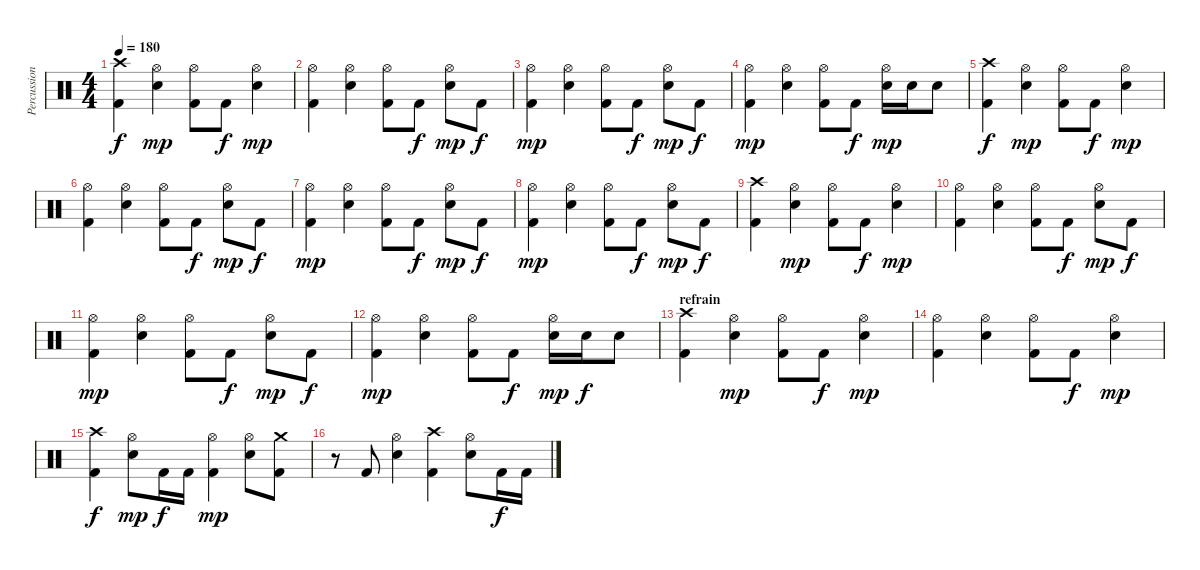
\track ("Percussions" "Percussion") {instrument percussion}
\staff {score}
\articulation defaults
\ts (4 4)
\tempo 180
\clef neutral
\ks c
("Crash high (hit)" "Kick (hit) 2").4{dy f} ("Hi-Hat (open)" "Electric Snare (hit)").4{dy mp} ("Hi-Hat (open)" "Kick (hit) 2").8 "Kick (hit) 2".8{dy f} ("Hi-Hat (open)" "Electric Snare (hit)").4{dy mp} |
("Hi-Hat (open)" "Kick (hit) 2").4 ("Hi-Hat (open)" "Electric Snare (hit)").4 ("Hi-Hat (open)" "Kick (hit) 2").8 "Kick (hit) 2".8{dy f} ("Hi-Hat (open)" "Electric Snare (hit)").8{dy mp} "Kick (hit) 2".8{dy f} |
("Hi-Hat (open)" "Kick (hit) 2").4{dy mp} ("Hi-Hat (open)" "Electric Snare (hit)").4 ("Hi-Hat (open)" "Kick (hit) 2").8 "Kick (hit) 2".8{dy f} ("Hi-Hat (open)" "Electric Snare (hit)").8{dy mp} "Kick (hit) 2".8{dy f} |
("Hi-Hat (open)" "Kick (hit) 2").4{dy mp} ("Hi-Hat (open)" "Electric Snare (hit)").4 ("Hi-Hat (open)" "Kick (hit) 2").8 "Kick (hit) 2".8{dy f} ("Hi-Hat (open)" "Electric Snare (hit)").16{dy mp} "Electric Snare (hit)".16 "Electric Snare (hit)".8 |
("Crash high (hit)" "Kick (hit) 2").4{dy f} ("Hi-Hat (open)" "Electric Snare (hit)").4{dy mp} ("Hi-Hat (open)" "Kick (hit) 2").8 "Kick (hit) 2".8{dy f} ("Hi-Hat (open)" "Electric Snare (hit)").4{dy mp} |
("Hi-Hat (open)" "Kick (hit) 2").4 ("Hi-Hat (open)" "Electric Snare (hit)").4 ("Hi-Hat (open)" "Kick (hit) 2").8 "Kick (hit) 2".8{dy f} ("Hi-Hat (open)" "Electric Snare (hit)").8{dy mp} "Kick (hit) 2".8{dy f} |
("Hi-Hat (open)" "Kick (hit) 2").4{dy mp} ("Hi-Hat (open)" "Electric Snare (hit)").4 ("Hi-Hat (open)" "Kick (hit) 2").8 "Kick (hit) 2".8{dy f} ("Hi-Hat (open)" "Electric Snare (hit)").8{dy mp} "Kick (hit) 2".8{dy f} |
("Hi-Hat (open)" "Kick (hit) 2").4{dy mp} ("Hi-Hat (open)" "Electric Snare (hit)").4 ("Hi-Hat (open)" "Kick (hit) 2").8 "Kick (hit) 2".8{dy f} ("Hi-Hat (open)" "Electric Snare (hit)").8{dy mp} "Kick (hit) 2".8{dy f} |
("Crash high (hit)" "Kick (hit) 2").4 ("Hi-Hat (open)" "Electric Snare (hit)").4{dy mp} ("Hi-Hat (open)" "Kick (hit) 2").8 "Kick (hit) 2".8{dy f} ("Hi-Hat (open)" "Electric Snare (hit)").4{dy mp} |
("Hi-Hat (open)" "Kick (hit) 2").4 ("Hi-Hat (open)" "Electric Snare (hit)").4 ("Hi-Hat (open)" "Kick (hit) 2").8 "Kick (hit) 2".8{dy f} ("Hi-Hat (open)" "Electric Snare (hit)").8{dy mp} "Kick (hit) 2".8{dy f} |
("Hi-Hat (open)" "Kick (hit) 2").4{dy mp} ("Hi-Hat (open)" "Electric Snare (hit)").4 ("Hi-Hat (open)" "Kick (hit) 2").8 "Kick (hit) 2".8{dy f} ("Hi-Hat (open)" "Electric Snare (hit)").8{dy mp} "Kick (hit) 2".8{dy f} |
("Hi-Hat (open)" "Kick (hit) 2").4{dy mp} ("Hi-Hat (open)" "Electric Snare (hit)").4 ("Hi-Hat (open)" "Kick (hit) 2").8 "Kick (hit) 2".8{dy f} ("Hi-Hat (open)" "Electric Snare (hit)").16{dy mp} "Electric Snare (hit)".16{dy f} "Electric Snare (hit)".8 |
\section ("" "refrain")
("Crash high (hit)" "Kick (hit) 2").4 ("Hi-Hat (open)" "Electric Snare (hit)").4{dy mp} ("Hi-Hat (open)" "Kick (hit) 2").8 "Kick (hit) 2".8{dy f} ("Hi-Hat (open)" "Electric Snare (hit)").4{dy mp} |
("Hi-Hat (open)" "Kick (hit) 2").4 ("Hi-Hat (open)" "Electric Snare (hit)").4 ("Hi-Hat (open)" "Kick (hit) 2").8 "Kick (hit) 2".8{dy f} ("Hi-Hat (open)" "Electric Snare (hit)").4{dy mp} |
("Crash high (hit)" "Kick (hit) 2").4{dy f} ("Hi-Hat (open)" "Electric Snare (hit)").8{dy mp} "Kick (hit) 2".16{dy f} "Kick (hit) 2".16 ("Hi-Hat (open)" "Kick (hit) 2").4{dy mp} ("Hi-Hat (open)" "Electric Snare (hit)").8 ("Crash medium (hit)" "Kick (hit) 2").8 |
r.8 "Kick (hit) 2".8 ("Hi-Hat (open)" "Electric Snare (hit)").4 ("Crash high (hit)" "Kick (hit) 2").4 ("Hi-Hat (open)" "Electric Snare (hit)").8 "Kick (hit) 2".16{dy f} "Kick (hit) 2".16
